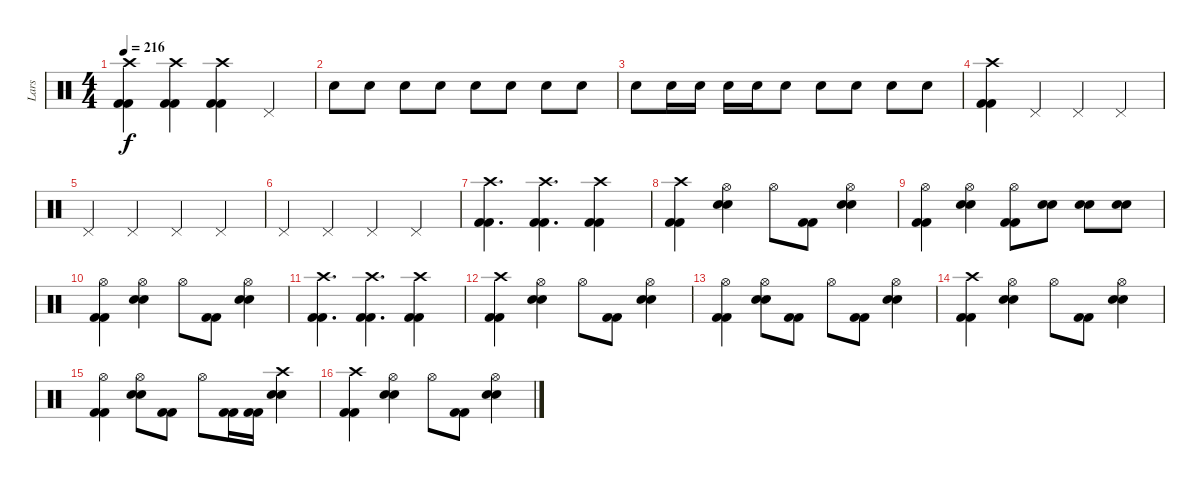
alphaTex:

\track ("Lars" "Lars") {instrument percussion}
\staff {score}
\articulation defaults
\ts (4 4)
\tempo 216
\clef neutral
\ks c
("Crash high (hit)" "Kick (hit) 2" "Kick (hit) 2").4{dy f} ("Crash high (hit)" "Kick (hit) 2" "Kick (hit) 2").4 ("Crash high (hit)" "Kick (hit) 2" "Kick (hit) 2").4 "Pedal Hi-Hat (hit)".4 |
"Electric Snare (hit)".8 "Electric Snare (hit)".8 "Electric Snare (hit)".8 "Electric Snare (hit)".8 "Electric Snare (hit)".8 "Electric Snare (hit)".8 "Electric Snare (hit)".8 "Electric Snare (hit)".8 |
"Electric Snare (hit)".8 "Electric Snare (hit)".16 "Electric Snare (hit)".16 "Electric Snare (hit)".16 "Electric Snare (hit)".16 "Electric Snare (hit)".8 "Electric Snare (hit)".8 "Electric Snare (hit)".8 "Electric Snare (hit)".8 "Electric Snare (hit)".8 |
("Crash high (hit)" "Kick (hit) 2" "Kick (hit) 2").4 "Pedal Hi-Hat (hit)".4 "Pedal Hi-Hat (hit)".4 "Pedal Hi-Hat (hit)".4 |
"Pedal Hi-Hat (hit)".4 "Pedal Hi-Hat (hit)".4 "Pedal Hi-Hat (hit)".4 "Pedal Hi-Hat (hit)".4 |
"Pedal Hi-Hat (hit)".4 "Pedal Hi-Hat (hit)".4 "Pedal Hi-Hat (hit)".4 "Pedal Hi-Hat (hit)".4 |
("Crash high (hit)" "Kick (hit) 2" "Kick (hit) 2").4{d} ("Crash high (hit)" "Kick (hit) 2" "Kick (hit) 2").4{d} ("Crash high (hit)" "Kick (hit) 2" "Kick (hit) 2").4 |
("Crash high (hit)" "Kick (hit) 2" "Kick (hit) 2").4 ("Hi-Hat (open)" "Electric Snare (hit)" "Electric Snare (hit)").4 "Hi-Hat (open)".8 ("Kick (hit) 2" "Kick (hit) 2").8 ("Hi-Hat (open)" "Electric Snare (hit)" "Electric Snare (hit)").4 |
("Hi-Hat (open)" "Kick (hit) 2" "Kick (hit) 2").4 ("Hi-Hat (open)" "Electric Snare (hit)" "Electric Snare (hit)").4 ("Hi-Hat (open)" "Kick (hit) 2" "Kick (hit) 2").8 ("Electric Snare (hit)" "Electric Snare (hit)").8 ("Electric Snare (hit)" "Electric Snare (hit)").8 ("Electric Snare (hit)" "Electric Snare (hit)").8 |
("Hi-Hat (open)" "Kick (hit) 2" "Kick (hit) 2").4 ("Hi-Hat (open)" "Electric Snare (hit)" "Electric Snare (hit)").4 "Hi-Hat (open)".8 ("Kick (hit) 2" "Kick (hit) 2").8 ("Hi-Hat (open)" "Electric Snare (hit)" "Electric Snare (hit)").4 |
("Crash high (hit)" "Kick (hit) 2" "Kick (hit) 2").4{d} ("Crash high (hit)" "Kick (hit) 2" "Kick (hit) 2").4{d} ("Crash high (hit)" "Kick (hit) 2" "Kick (hit) 2").4 |
("Crash high (hit)" "Kick (hit) 2" "Kick (hit) 2").4 ("Hi-Hat (open)" "Electric Snare (hit)" "Electric Snare (hit)").4 "Hi-Hat (open)".8 ("Kick (hit) 2" "Kick (hit) 2").8 ("Hi-Hat (open)" "Electric Snare (hit)" "Electric Snare (hit)").4 |
("Hi-Hat (open)" "Kick (hit) 2" "Kick (hit) 2").4 ("Hi-Hat (open)" "Electric Snare (hit)" "Electric Snare (hit)").8 ("Kick (hit) 2" "Kick (hit) 2").8 "Hi-Hat (open)".8 ("Kick (hit) 2" "Kick (hit) 2").8 ("Hi-Hat (open)" "Electric Snare (hit)" "Electric Snare (hit)").4 |
("Crash high (hit)" "Kick (hit) 2" "Kick (hit) 2").4 ("Hi-Hat (open)" "Electric Snare (hit)" "Electric Snare (hit)").4 "Hi-Hat (open)".8 ("Kick (hit) 2" "Kick (hit) 2").8 ("Hi-Hat (open)" "Electric Snare (hit)" "Electric Snare (hit)").4 |
("Hi-Hat (open)" "Kick (hit) 2" "Kick (hit) 2").4 ("Hi-Hat (open)" "Electric Snare (hit)" "Electric Snare (hit)").8 ("Kick (hit) 2" "Kick (hit) 2").8 "Hi-Hat (open)".8 ("Kick (hit) 2" "Kick (hit) 2").16 ("Kick (hit) 2" "Kick (hit) 2").16 ("Crash high (hit)" "Electric Snare (hit)" "Electric Snare (hit)").4 |
("Crash high (hit)" "Kick (hit) 2" "Kick (hit) 2").4 ("Hi-Hat (open)" "Electric Snare (hit)" "Electric Snare (hit)").4 "Hi-Hat (open)".8 ("Kick (hit) 2" "Kick (hit) 2").8 ("Hi-Hat (open)" "Electric Snare (hit)" "Electric Snare (hit)").4
